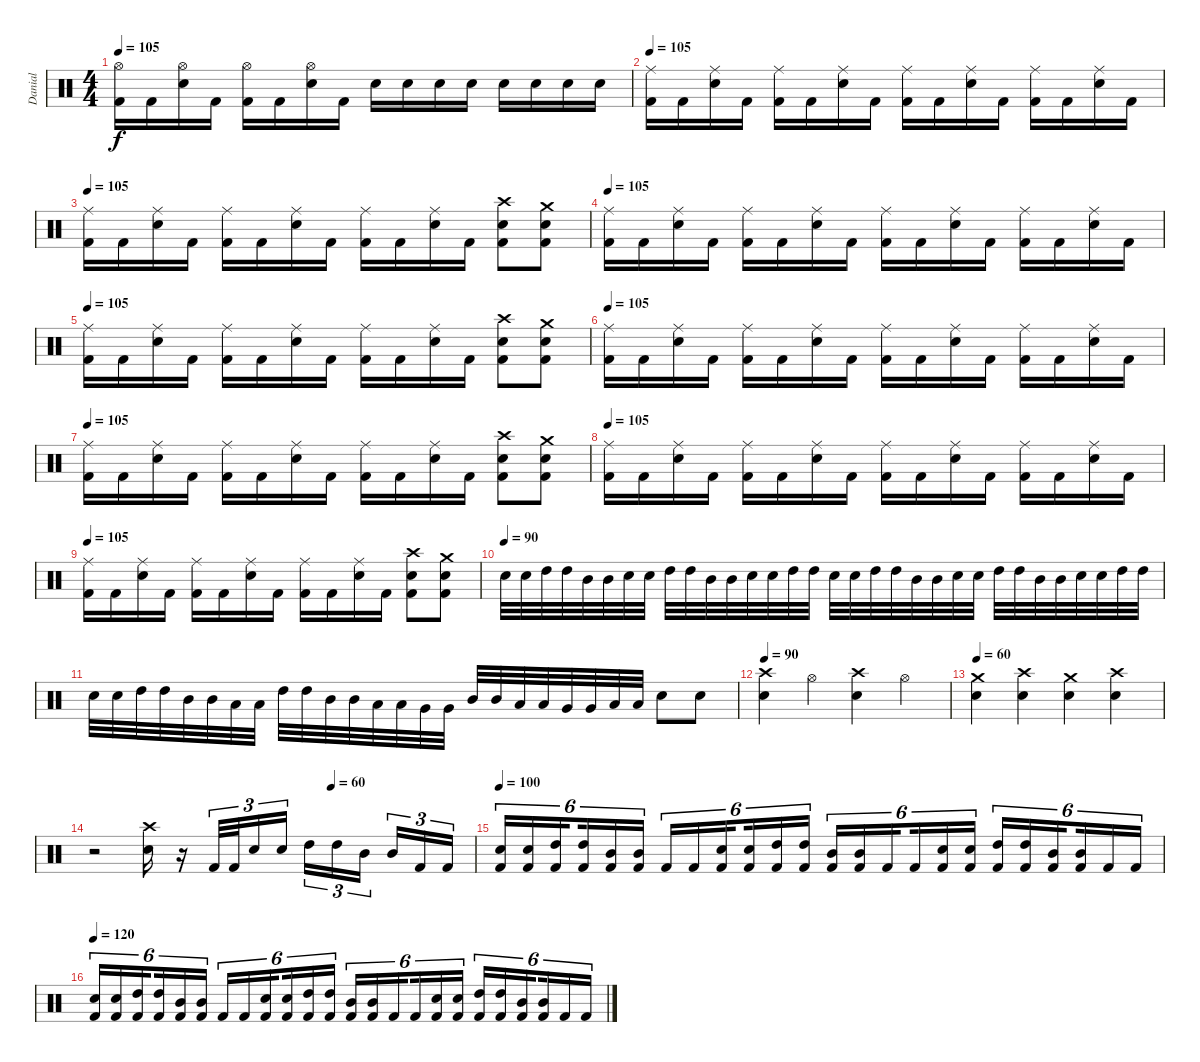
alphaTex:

\track ("Danial" "Danial") {instrument percussion}
\staff {score}
\articulation defaults
\ts (4 4)
\tempo 105
\clef neutral
\ks c
("Hi-Hat (open)" "Kick (hit) 2").16{dy f} "Kick (hit) 2".16 ("Hi-Hat (open)" "Snare (hit) 2").16 "Kick (hit) 2".16 ("Hi-Hat (open)" "Kick (hit) 2").16 "Kick (hit) 2".16 ("Hi-Hat (open)" "Snare (hit) 2").16 "Kick (hit) 2".16 "Snare (hit) 2".16 "Snare (hit) 2".16 "Snare (hit) 2".16 "Snare (hit) 2".16 "Snare (hit) 2".16 "Snare (hit) 2".16 "Snare (hit) 2".16 "Snare (hit) 2".16 |
\tempo 105
("Ride (middle)" "Kick (hit) 2").16 "Kick (hit) 2".16 ("Ride (middle)" "Snare (hit) 2").16 "Kick (hit) 2".16 ("Ride (middle)" "Kick (hit) 2").16 "Kick (hit) 2".16 ("Ride (middle)" "Snare (hit) 2").16 "Kick (hit) 2".16 ("Ride (middle)" "Kick (hit) 2").16 "Kick (hit) 2".16 ("Ride (middle)" "Snare (hit) 2").16 "Kick (hit) 2".16 ("Ride (middle)" "Kick (hit) 2").16 "Kick (hit) 2".16 ("Ride (middle)" "Snare (hit) 2").16 "Kick (hit) 2".16 |
\tempo 105
("Ride (middle)" "Kick (hit) 2").16 "Kick (hit) 2".16 ("Ride (middle)" "Snare (hit) 2").16 "Kick (hit) 2".16 ("Ride (middle)" "Kick (hit) 2").16 "Kick (hit) 2".16 ("Ride (middle)" "Snare (hit) 2").16 "Kick (hit) 2".16 ("Ride (middle)" "Kick (hit) 2").16 "Kick (hit) 2".16 ("Ride (middle)" "Snare (hit) 2").16 "Kick (hit) 2".16 ("Crash high (hit)" "Snare (hit) 2" "Kick (hit) 2").8 ("Crash medium (hit)" "Snare (hit) 2" "Kick (hit) 2").8 |
\tempo 105
("Ride (middle)" "Kick (hit) 2").16 "Kick (hit) 2".16 ("Ride (middle)" "Snare (hit) 2").16 "Kick (hit) 2".16 ("Ride (middle)" "Kick (hit) 2").16 "Kick (hit) 2".16 ("Ride (middle)" "Snare (hit) 2").16 "Kick (hit) 2".16 ("Ride (middle)" "Kick (hit) 2").16 "Kick (hit) 2".16 ("Ride (middle)" "Snare (hit) 2").16 "Kick (hit) 2".16 ("Ride (middle)" "Kick (hit) 2").16 "Kick (hit) 2".16 ("Ride (middle)" "Snare (hit) 2").16 "Kick (hit) 2".16 |
\tempo 105
("Ride (middle)" "Kick (hit) 2").16 "Kick (hit) 2".16 ("Ride (middle)" "Snare (hit) 2").16 "Kick (hit) 2".16 ("Ride (middle)" "Kick (hit) 2").16 "Kick (hit) 2".16 ("Ride (middle)" "Snare (hit) 2").16 "Kick (hit) 2".16 ("Ride (middle)" "Kick (hit) 2").16 "Kick (hit) 2".16 ("Ride (middle)" "Snare (hit) 2").16 "Kick (hit) 2".16 ("Crash high (hit)" "Snare (hit) 2" "Kick (hit) 2").8 ("Crash medium (hit)" "Snare (hit) 2" "Kick (hit) 2").8 |
\tempo 105
("Ride (middle)" "Kick (hit) 2").16 "Kick (hit) 2".16 ("Ride (middle)" "Snare (hit) 2").16 "Kick (hit) 2".16 ("Ride (middle)" "Kick (hit) 2").16 "Kick (hit) 2".16 ("Ride (middle)" "Snare (hit) 2").16 "Kick (hit) 2".16 ("Ride (middle)" "Kick (hit) 2").16 "Kick (hit) 2".16 ("Ride (middle)" "Snare (hit) 2").16 "Kick (hit) 2".16 ("Ride (middle)" "Kick (hit) 2").16 "Kick (hit) 2".16 ("Ride (middle)" "Snare (hit) 2").16 "Kick (hit) 2".16 |
\tempo 105
("Ride (middle)" "Kick (hit) 2").16 "Kick (hit) 2".16 ("Ride (middle)" "Snare (hit) 2").16 "Kick (hit) 2".16 ("Ride (middle)" "Kick (hit) 2").16 "Kick (hit) 2".16 ("Ride (middle)" "Snare (hit) 2").16 "Kick (hit) 2".16 ("Ride (middle)" "Kick (hit) 2").16 "Kick (hit) 2".16 ("Ride (middle)" "Snare (hit) 2").16 "Kick (hit) 2".16 ("Crash high (hit)" "Snare (hit) 2" "Kick (hit) 2").8 ("Crash medium (hit)" "Snare (hit) 2" "Kick (hit) 2").8 |
\tempo 105
("Ride (middle)" "Kick (hit) 2").16 "Kick (hit) 2".16 ("Ride (middle)" "Snare (hit) 2").16 "Kick (hit) 2".16 ("Ride (middle)" "Kick (hit) 2").16 "Kick (hit) 2".16 ("Ride (middle)" "Snare (hit) 2").16 "Kick (hit) 2".16 ("Ride (middle)" "Kick (hit) 2").16 "Kick (hit) 2".16 ("Ride (middle)" "Snare (hit) 2").16 "Kick (hit) 2".16 ("Ride (middle)" "Kick (hit) 2").16 "Kick (hit) 2".16 ("Ride (middle)" "Snare (hit) 2").16 "Kick (hit) 2".16 |
\tempo 105
("Ride (middle)" "Kick (hit) 2").16 "Kick (hit) 2".16 ("Ride (middle)" "Snare (hit) 2").16 "Kick (hit) 2".16 ("Ride (middle)" "Kick (hit) 2").16 "Kick (hit) 2".16 ("Ride (middle)" "Snare (hit) 2").16 "Kick (hit) 2".16 ("Ride (middle)" "Kick (hit) 2").16 "Kick (hit) 2".16 ("Ride (middle)" "Snare (hit) 2").16 "Kick (hit) 2".16 ("Crash high (hit)" "Snare (hit) 2" "Kick (hit) 2").8 ("Crash medium (hit)" "Snare (hit) 2" "Kick (hit) 2").8 |
\tempo (90)
"Snare (hit) 2".32 "Snare (hit) 2".32 "High Tom (hit)".32 "High Tom (hit)".32 "Mid Tom (hit)".32 "Mid Tom (hit)".32 "Snare (hit) 2".32 "Snare (hit) 2".32 "High Tom (hit)".32 "High Tom (hit)".32 "Mid Tom (hit)".32 "Mid Tom (hit)".32 "Snare (hit) 2".32 "Snare (hit) 2".32 "High Tom (hit)".32 "High Tom (hit)".32 "Snare (hit) 2".32 "Snare (hit) 2".32 "High Tom (hit)".32 "High Tom (hit)".32 "Mid Tom (hit)".32 "Mid Tom (hit)".32 "Snare (hit) 2".32 "Snare (hit) 2".32 "High Tom (hit)".32 "High Tom (hit)".32 "Mid Tom (hit)".32 "Mid Tom (hit)".32 "Snare (hit) 2".32 "Snare (hit) 2".32 "High Tom (hit)".32 "High Tom (hit)".32 |
"Snare (hit) 2".32 "Snare (hit) 2".32 "High Tom (hit)".32 "High Tom (hit)".32 "Mid Tom (hit)".32 "Mid Tom (hit)".32 "Low Tom (hit)".32 "Low Tom (hit)".32 "High Tom (hit)".32 "High Tom (hit)".32 "Mid Tom (hit)".32 "Mid Tom (hit)".32 "Low Tom (hit)".32 "Low Tom (hit)".32 "Very Low Tom (hit)".32 "Very Low Tom (hit)".32 "Mid Tom (hit)".32 "Mid Tom (hit)".32 "Low Tom (hit)".32 "Low Tom (hit)".32 "Very Low Tom (hit)".32 "Very Low Tom (hit)".32 "Low Floor Tom (hit)".32 "Low Floor Tom (hit)".32 "Snare (hit) 2".8 "Snare (hit) 2".8 |
\tempo 90
("Crash high (hit)" "Snare (hit) 2").4 "Hi-Hat (open)".4 ("Crash high (hit)" "Snare (hit) 2").4 "Hi-Hat (open)".4 |
\tempo 60
("Crash medium (hit)" "Snare (hit) 2").4 ("Crash high (hit)" "Snare (hit) 2").4 ("Crash medium (hit)" "Snare (hit) 2").4 ("Crash high (hit)" "Snare (hit) 2").4 |
\tempo (60 0.625)
r.2 ("Crash high (hit)" "Snare (hit) 2").16 r.16 "Kick (hit) 2".32{tu (3 2)} "Kick (hit) 2".32{tu (3 2)} "Snare (hit) 2".16{tu (3 2)} "Snare (hit) 2".16{tu (3 2)} "High Tom (hit)".16{tu (3 2)} "High Tom (hit)".16{tu (3 2)} "Mid Tom (hit)".16{tu (3 2) beam splitsecondary} "Mid Tom (hit)".16{tu (3 2)} "Kick (hit) 2".16{tu (3 2)} "Kick (hit) 2".16{tu (3 2)} |
\tempo 100
("Snare (hit) 2" "Kick (hit) 2").16{tu (6 4)} ("Snare (hit) 2" "Kick (hit) 2").16{tu (6 4)} ("High Tom (hit)" "Kick (hit) 2").16{tu (6 4) beam splitsecondary} ("High Tom (hit)" "Kick (hit) 2").16{tu (6 4)} ("Mid Tom (hit)" "Kick (hit) 2").16{tu (6 4)} ("Mid Tom (hit)" "Kick (hit) 2").16{tu (6 4)} "Kick (hit) 2".16{tu (6 4)} "Kick (hit) 2".16{tu (6 4)} ("Snare (hit) 2" "Kick (hit) 2").16{tu (6 4) beam splitsecondary} ("Snare (hit) 2" "Kick (hit) 2").16{tu (6 4)} ("High Tom (hit)" "Kick (hit) 2").16{tu (6 4)} ("High Tom (hit)" "Kick (hit) 2").16{tu (6 4)} ("Mid Tom (hit)" "Kick (hit) 2").16{tu (6 4)} ("Mid Tom (hit)" "Kick (hit) 2").16{tu (6 4)} "Kick (hit) 2".16{tu (6 4) beam splitsecondary} "Kick (hit) 2".16{tu (6 4)} ("Snare (hit) 2" "Kick (hit) 2").16{tu (6 4)} ("Snare (hit) 2" "Kick (hit) 2").16{tu (6 4)} ("High Tom (hit)" "Kick (hit) 2").16{tu (6 4)} ("High Tom (hit)" "Kick (hit) 2").16{tu (6 4)} ("Mid Tom (hit)" "Kick (hit) 2").16{tu (6 4) beam splitsecondary} ("Mid Tom (hit)" "Kick (hit) 2").16{tu (6 4)} "Kick (hit) 2".16{tu (6 4)} "Kick (hit) 2".16{tu (6 4)} |
\tempo 120
("Snare (hit) 2" "Kick (hit) 2").16{tu (6 4)} ("Snare (hit) 2" "Kick (hit) 2").16{tu (6 4)} ("High Tom (hit)" "Kick (hit) 2").16{tu (6 4) beam splitsecondary} ("High Tom (hit)" "Kick (hit) 2").16{tu (6 4)} ("Mid Tom (hit)" "Kick (hit) 2").16{tu (6 4)} ("Mid Tom (hit)" "Kick (hit) 2").16{tu (6 4)} "Kick (hit) 2".16{tu (6 4)} "Kick (hit) 2".16{tu (6 4)} ("Snare (hit) 2" "Kick (hit) 2").16{tu (6 4) beam splitsecondary} ("Snare (hit) 2" "Kick (hit) 2").16{tu (6 4)} ("High Tom (hit)" "Kick (hit) 2").16{tu (6 4)} ("High Tom (hit)" "Kick (hit) 2").16{tu (6 4)} ("Mid Tom (hit)" "Kick (hit) 2").16{tu (6 4)} ("Mid Tom (hit)" "Kick (hit) 2").16{tu (6 4)} "Kick (hit) 2".16{tu (6 4) beam splitsecondary} "Kick (hit) 2".16{tu (6 4)} ("Snare (hit) 2" "Kick (hit) 2").16{tu (6 4)} ("Snare (hit) 2" "Kick (hit) 2").16{tu (6 4)} ("High Tom (hit)" "Kick (hit) 2").16{tu (6 4)} ("High Tom (hit)" "Kick (hit) 2").16{tu (6 4)} ("Mid Tom (hit)" "Kick (hit) 2").16{tu (6 4) beam splitsecondary} ("Mid Tom (hit)" "Kick (hit) 2").16{tu (6 4)} "Kick (hit) 2".16{tu (6 4)} "Kick (hit) 2".16{tu (6 4)}
